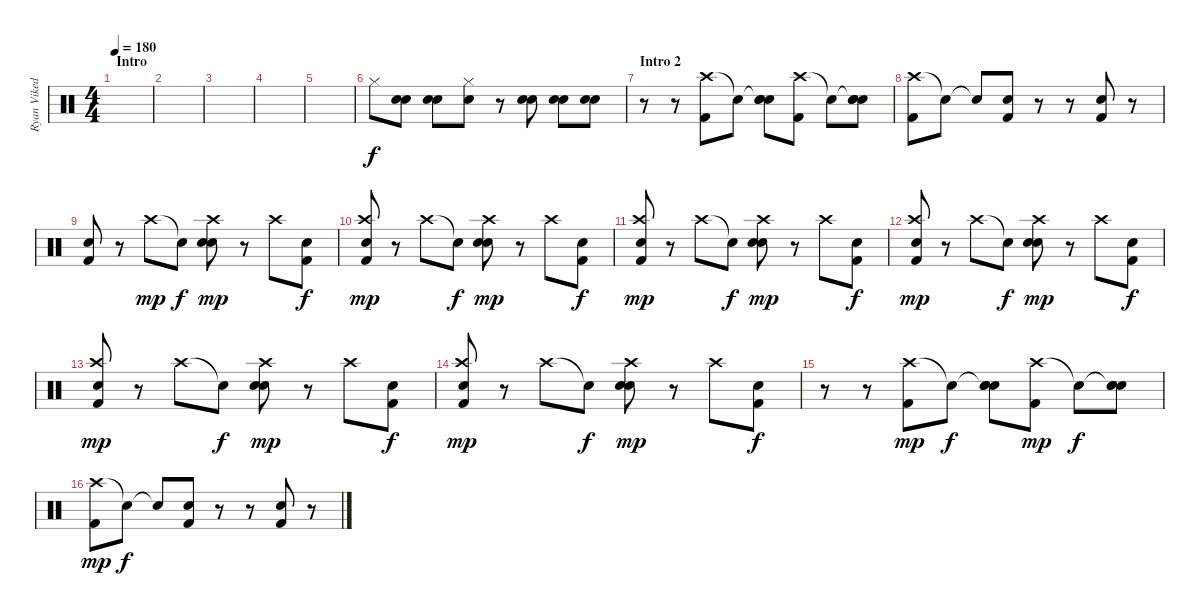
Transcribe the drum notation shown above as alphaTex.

\track ("Ryan Vikedal(drums)" "Ryan Viked") {instrument percussion}
\staff {score}
\articulation defaults
\ts (4 4)
\section ("" "Intro")
\tempo 180
\clef neutral
\ks c
|
|
|
|
|
"Hi-Hat (closed)".8 ("Electric Snare (hit)" "Electric Snare (hit)").8 ("Electric Snare (hit)" "Electric Snare (hit)").8 ("Hi-Hat (closed)" "Electric Snare (hit)").8 r.8 ("Electric Snare (hit)" "Electric Snare (hit)").8 ("Electric Snare (hit)" "Electric Snare (hit)").8 ("Electric Snare (hit)" "Electric Snare (hit)").8 |
\section ("" "Intro 2")
r.8 r.8 ("Crash high (hit)" "Kick (hit) 2").8 "Snare (hit)"{t}.8 ("Snare (hit)"{t} "Electric Snare (hit)" "Electric Snare (hit)").8 ("Crash high (hit)" "Kick (hit) 2").8 "Snare (hit)"{t}.8 ("Snare (hit)"{t} "Electric Snare (hit)" "Electric Snare (hit)").8 |
("Crash high (hit)" "Kick (hit) 2").8 "Snare (hit)"{t}.8 "Snare (hit)"{t}.8 ("Electric Snare (hit)" "Kick (hit) 2").8 r.8 r.8 ("Electric Snare (hit)" "Kick (hit) 2").8 r.8 |
("Electric Snare (hit)" "Kick (hit) 2").8 r.8 "Crash high (hit)".8{dy mp} "Snare (hit)"{t}.8{dy f} ("Crash high (hit)" "Electric Snare (hit)" "Electric Snare (hit)").8{dy mp} r.8 "Crash high (hit)".8 ("Kick (hit) 2" "Electric Snare (hit)").8{dy f} |
("Crash high (hit)" "Electric Snare (hit)" "Kick (hit) 2").8{dy mp} r.8 "Crash high (hit)".8 "Snare (hit)"{t}.8{dy f} ("Crash high (hit)" "Electric Snare (hit)" "Electric Snare (hit)").8{dy mp} r.8 "Crash high (hit)".8 ("Kick (hit) 2" "Electric Snare (hit)").8{dy f} |
("Crash high (hit)" "Electric Snare (hit)" "Kick (hit) 2").8{dy mp} r.8 "Crash high (hit)".8 "Snare (hit)"{t}.8{dy f} ("Crash high (hit)" "Electric Snare (hit)" "Electric Snare (hit)").8{dy mp} r.8 "Crash high (hit)".8 ("Kick (hit) 2" "Electric Snare (hit)").8{dy f} |
("Crash high (hit)" "Electric Snare (hit)" "Kick (hit) 2").8{dy mp} r.8 "Crash high (hit)".8 "Snare (hit)"{t}.8{dy f} ("Crash high (hit)" "Electric Snare (hit)" "Electric Snare (hit)").8{dy mp} r.8 "Crash high (hit)".8 ("Kick (hit) 2" "Electric Snare (hit)").8{dy f} |
("Crash high (hit)" "Electric Snare (hit)" "Kick (hit) 2").8{dy mp} r.8 "Crash high (hit)".8 "Snare (hit)"{t}.8{dy f} ("Crash high (hit)" "Electric Snare (hit)" "Electric Snare (hit)").8{dy mp} r.8 "Crash high (hit)".8 ("Kick (hit) 2" "Electric Snare (hit)").8{dy f} |
("Crash high (hit)" "Electric Snare (hit)" "Kick (hit) 2").8{dy mp} r.8 "Crash high (hit)".8 "Snare (hit)"{t}.8{dy f} ("Crash high (hit)" "Electric Snare (hit)" "Electric Snare (hit)").8{dy mp} r.8 "Crash high (hit)".8 ("Kick (hit) 2" "Electric Snare (hit)").8{dy f} |
r.8 r.8 ("Crash high (hit)" "Kick (hit) 2").8{dy mp} "Snare (hit)"{t}.8{dy f} ("Snare (hit)"{t} "Electric Snare (hit)" "Electric Snare (hit)").8 ("Crash high (hit)" "Kick (hit) 2").8{dy mp} "Snare (hit)"{t}.8{dy f} ("Snare (hit)"{t} "Electric Snare (hit)" "Electric Snare (hit)").8 |
("Crash high (hit)" "Kick (hit) 2").8{dy mp} "Snare (hit)"{t}.8{dy f} "Snare (hit)"{t}.8 ("Electric Snare (hit)" "Kick (hit) 2").8 r.8 r.8 ("Electric Snare (hit)" "Kick (hit) 2").8 r.8
